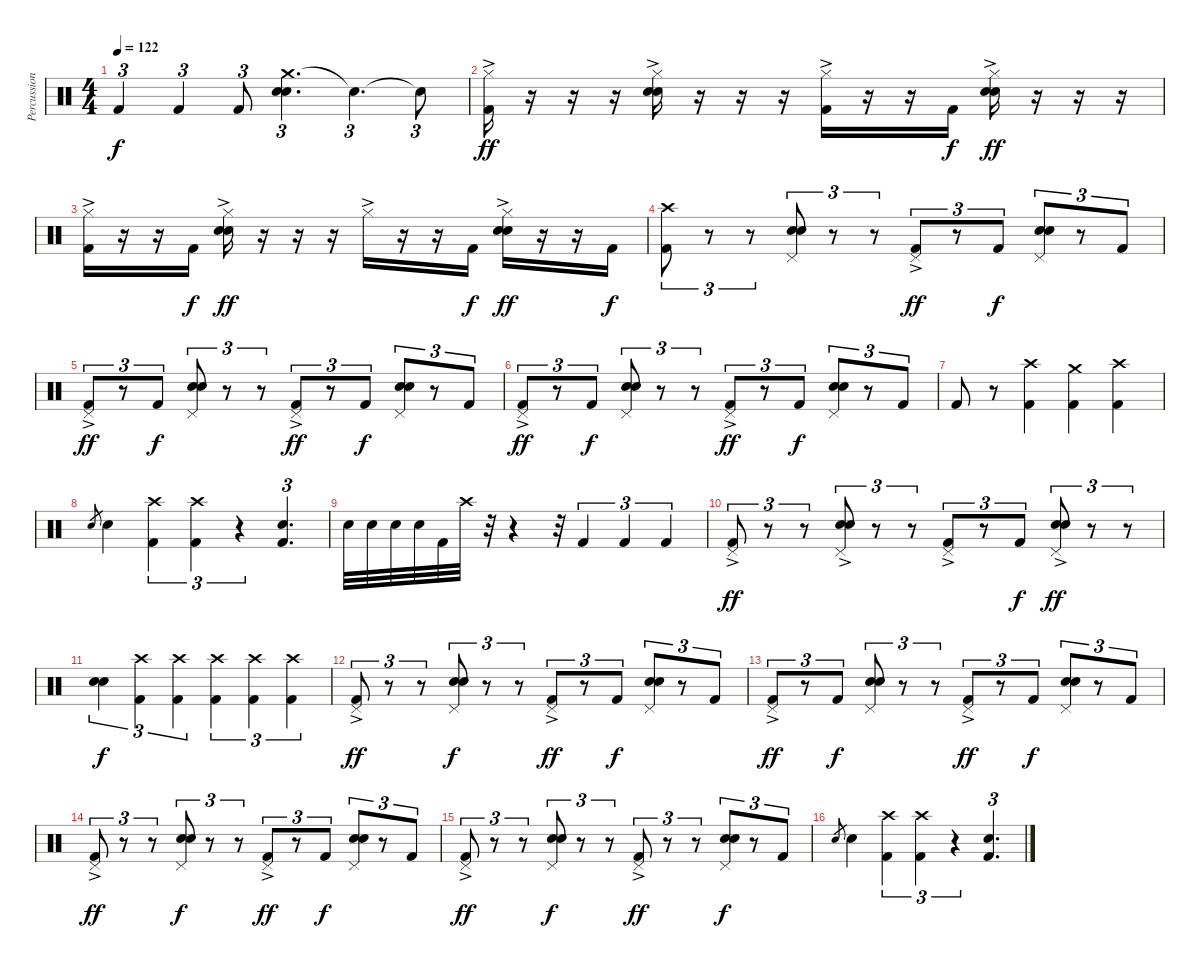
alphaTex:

\track ("Percussion" "Percussion") {instrument percussion}
\staff {score}
\articulation defaults
\ts (4 4)
\tempo 122
\clef neutral
\ks c "Kick (hit) 2".4{tu (3 2) dy f} "Kick (hit) 2".4{tu (3 2)} "Kick (hit) 2".8{tu (3 2)}
("Crash medium (hit)" "Snare (hit) 2" "Electric Snare (hit)").4{d tu (3 2)} "Snare (hit)"{t}.4{d tu (3 2)} "Snare (hit)"{t}.8{tu (3 2)} |
("Hi-Hat (closed)"{ac} "Kick (hit) 2").16{dy ff} r.16 r.16 r.16 ("Hi-Hat (closed)"{ac} "Snare (hit) 2" "Electric Snare (hit)").16 r.16 r.16 r.16 ("Hi-Hat (closed)"{ac} "Kick (hit) 2").16 r.16 r.16 "Kick (hit) 2".16{dy f} ("Hi-Hat (closed)"{ac} "Snare (hit) 2" "Electric Snare (hit)").16{dy ff} r.16 r.16 r.16 |
("Hi-Hat (closed)"{ac} "Kick (hit) 2").16 r.16 r.16 "Kick (hit) 2".16{dy f} ("Hi-Hat (closed)"{ac} "Snare (hit) 2" "Electric Snare (hit)").16{dy ff} r.16 r.16 r.16 "Hi-Hat (closed)"{ac}.16 r.16 r.16 "Kick (hit) 2".16{dy f} ("Hi-Hat (closed)"{ac} "Snare (hit) 2" "Electric Snare (hit)").16{dy ff} r.16 r.16 "Kick (hit) 2".16{dy f} |
("Crash high (hit)" "Kick (hit) 2").8{tu (3 2)} r.8{tu (3 2)} r.8{tu (3 2)} ("Pedal Hi-Hat (hit)" "Snare (hit) 2" "Electric Snare (hit)").8{tu (3 2)} r.8{tu (3 2)} r.8{tu (3 2)} ("Pedal Hi-Hat (hit)"{ac} "Kick (hit) 2").8{tu (3 2) dy ff} r.8{tu (3 2)} "Kick (hit) 2".8{tu (3 2) dy f} ("Pedal Hi-Hat (hit)" "Snare (hit) 2" "Electric Snare (hit)").8{tu (3 2)} r.8{tu (3 2)} "Kick (hit) 2".8{tu (3 2)} |
("Pedal Hi-Hat (hit)"{ac} "Kick (hit) 2").8{tu (3 2) dy ff} r.8{tu (3 2)} "Kick (hit) 2".8{tu (3 2) dy f} ("Pedal Hi-Hat (hit)" "Snare (hit) 2" "Electric Snare (hit)").8{tu (3 2)} r.8{tu (3 2)} r.8{tu (3 2)} ("Pedal Hi-Hat (hit)"{ac} "Kick (hit) 2").8{tu (3 2) dy ff} r.8{tu (3 2)} "Kick (hit) 2".8{tu (3 2) dy f} ("Pedal Hi-Hat (hit)" "Snare (hit) 2" "Electric Snare (hit)").8{tu (3 2)} r.8{tu (3 2)} "Kick (hit) 2".8{tu (3 2)} |
("Pedal Hi-Hat (hit)"{ac} "Kick (hit) 2").8{tu (3 2) dy ff} r.8{tu (3 2)} "Kick (hit) 2".8{tu (3 2) dy f} ("Pedal Hi-Hat (hit)" "Snare (hit) 2" "Electric Snare (hit)").8{tu (3 2)} r.8{tu (3 2)} r.8{tu (3 2)} ("Pedal Hi-Hat (hit)"{ac} "Kick (hit) 2").8{tu (3 2) dy ff} r.8{tu (3 2)} "Kick (hit) 2".8{tu (3 2) dy f} ("Pedal Hi-Hat (hit)" "Snare (hit) 2" "Electric Snare (hit)").8{tu (3 2)} r.8{tu (3 2)} "Kick (hit) 2".8{tu (3 2)} |
"Kick (hit) 2".8 r.8 ("Crash high (hit)" "Kick (hit) 2").4 ("Crash medium (hit)" "Kick (hit) 2").4 ("Crash high (hit)" "Kick (hit) 2").4 |
"Electric Snare (hit)".8{gr} "Electric Snare (hit)".4 ("Crash high (hit)" "Kick (hit) 2").4{tu (3 2)} ("Crash high (hit)" "Kick (hit) 2").4{tu (3 2)} r.4{tu (3 2)} ("Electric Snare (hit)" "Kick (hit) 2").4{d tu (3 2)} |
"Electric Snare (hit)".32 "Electric Snare (hit)".32 "Electric Snare (hit)".32 "Electric Snare (hit)".32 "Kick (hit) 2".32 "Crash high (hit)".32 r.32 r.4 r.32 "Kick (hit) 2".4{tu (3 2)} "Kick (hit) 2".4{tu (3 2)} "Kick (hit) 2".4{tu (3 2)} |
("Pedal Hi-Hat (hit)"{ac} "Kick (hit) 2").8{tu (3 2) dy ff} r.8{tu (3 2)} r.8{tu (3 2)} ("Pedal Hi-Hat (hit)"{ac} "Snare (hit) 2" "Electric Snare (hit)").8{tu (3 2)} r.8{tu (3 2)} r.8{tu (3 2)} ("Pedal Hi-Hat (hit)"{ac} "Kick (hit) 2").8{tu (3 2)} r.8{tu (3 2)} "Kick (hit) 2".8{tu (3 2) dy f} ("Pedal Hi-Hat (hit)"{ac} "Snare (hit) 2" "Electric Snare (hit)").8{tu (3 2) dy ff} r.8{tu (3 2)} r.8{tu (3 2)} |
("Snare (hit) 2" "Electric Snare (hit)").4{tu (3 2) dy f} ("Crash high (hit)" "Kick (hit) 2").4{tu (3 2)} ("Crash high (hit)" "Kick (hit) 2").4{tu (3 2)} ("Crash high (hit)" "Kick (hit) 2").4{tu (3 2)} ("Crash high (hit)" "Kick (hit) 2").4{tu (3 2)} ("Crash high (hit)" "Kick (hit) 2").4{tu (3 2)} |
("Pedal Hi-Hat (hit)"{ac} "Kick (hit) 2").8{tu (3 2) dy ff} r.8{tu (3 2)} r.8{tu (3 2)} ("Pedal Hi-Hat (hit)" "Snare (hit) 2" "Electric Snare (hit)").8{tu (3 2) dy f} r.8{tu (3 2)} r.8{tu (3 2)} ("Pedal Hi-Hat (hit)"{ac} "Kick (hit) 2").8{tu (3 2) dy ff} r.8{tu (3 2)} "Kick (hit) 2".8{tu (3 2) dy f} ("Pedal Hi-Hat (hit)" "Snare (hit) 2" "Electric Snare (hit)").8{tu (3 2)} r.8{tu (3 2)} "Kick (hit) 2".8{tu (3 2)} |
("Pedal Hi-Hat (hit)"{ac} "Kick (hit) 2").8{tu (3 2) dy ff} r.8{tu (3 2)} "Kick (hit) 2".8{tu (3 2) dy f} ("Pedal Hi-Hat (hit)" "Snare (hit) 2" "Electric Snare (hit)").8{tu (3 2)} r.8{tu (3 2)} r.8{tu (3 2)} ("Pedal Hi-Hat (hit)"{ac} "Kick (hit) 2").8{tu (3 2) dy ff} r.8{tu (3 2)} "Kick (hit) 2".8{tu (3 2) dy f} ("Pedal Hi-Hat (hit)" "Snare (hit) 2" "Electric Snare (hit)").8{tu (3 2)} r.8{tu (3 2)} "Kick (hit) 2".8{tu (3 2)} |
("Pedal Hi-Hat (hit)"{ac} "Kick (hit) 2").8{tu (3 2) dy ff} r.8{tu (3 2)} r.8{tu (3 2)} ("Pedal Hi-Hat (hit)" "Snare (hit) 2" "Electric Snare (hit)").8{tu (3 2) dy f} r.8{tu (3 2)} r.8{tu (3 2)} ("Pedal Hi-Hat (hit)"{ac} "Kick (hit) 2").8{tu (3 2) dy ff} r.8{tu (3 2)} "Kick (hit) 2".8{tu (3 2) dy f} ("Pedal Hi-Hat (hit)" "Snare (hit) 2" "Electric Snare (hit)").8{tu (3 2)} r.8{tu (3 2)} "Kick (hit) 2".8{tu (3 2)} |
("Pedal Hi-Hat (hit)"{ac} "Kick (hit) 2").8{tu (3 2) dy ff} r.8{tu (3 2)} r.8{tu (3 2)} ("Pedal Hi-Hat (hit)" "Snare (hit) 2" "Electric Snare (hit)").8{tu (3 2) dy f} r.8{tu (3 2)} r.8{tu (3 2)} ("Pedal Hi-Hat (hit)"{ac} "Kick (hit) 2").8{tu (3 2) dy ff} r.8{tu (3 2)} r.8{tu (3 2)} ("Pedal Hi-Hat (hit)" "Snare (hit) 2" "Electric Snare (hit)").8{tu (3 2) dy f} r.8{tu (3 2)} "Kick (hit) 2".8{tu (3 2)} |
"Electric Snare (hit)".8{gr} "Electric Snare (hit)".4 ("Crash high (hit)" "Kick (hit) 2").4{tu (3 2)} ("Crash high (hit)" "Kick (hit) 2").4{tu (3 2)} r.4{tu (3 2)} ("Electric Snare (hit)" "Kick (hit) 2").4{d tu (3 2)}
